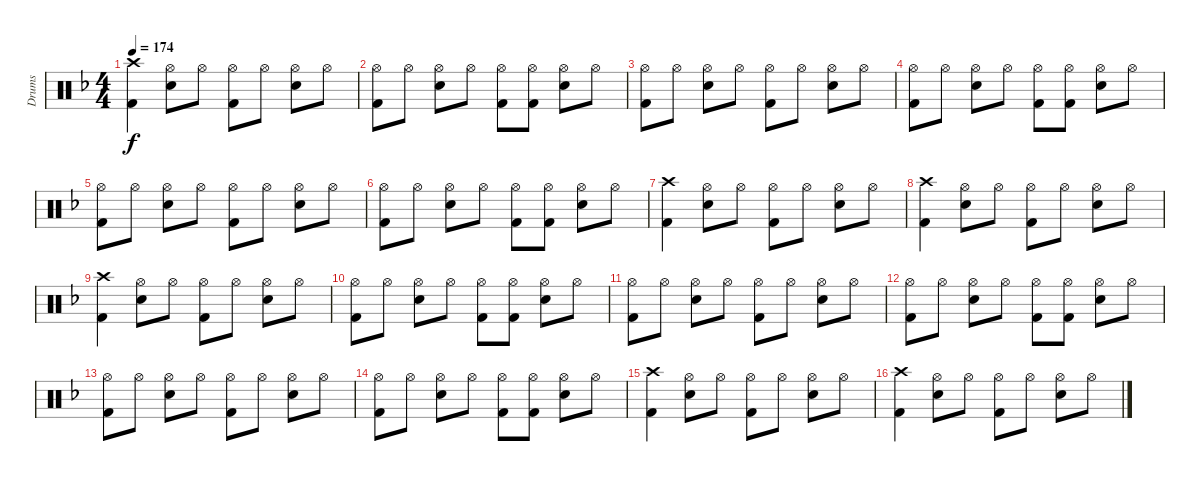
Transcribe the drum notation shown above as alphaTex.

\track ("Drums" "Drums") {instrument percussion}
\staff {score}
\articulation defaults
\ts (4 4)
\tempo 174
\clef neutral
\ks dminor
("Kick (hit) 2" "Crash high (hit)").4{dy f} ("Snare (hit) 2" "Hi-Hat (open)").8 "Hi-Hat (open)".8 ("Kick (hit) 2" "Hi-Hat (open)").8 "Hi-Hat (open)".8 ("Snare (hit) 2" "Hi-Hat (open)").8 "Hi-Hat (open)".8 |
("Kick (hit) 2" "Hi-Hat (open)").8 "Hi-Hat (open)".8 ("Snare (hit) 2" "Hi-Hat (open)").8 "Hi-Hat (open)".8 ("Kick (hit) 2" "Hi-Hat (open)").8 ("Kick (hit) 2" "Hi-Hat (open)").8 ("Snare (hit) 2" "Hi-Hat (open)").8 "Hi-Hat (open)".8 |
("Kick (hit) 2" "Hi-Hat (open)").8 "Hi-Hat (open)".8 ("Snare (hit) 2" "Hi-Hat (open)").8 "Hi-Hat (open)".8 ("Kick (hit) 2" "Hi-Hat (open)").8 "Hi-Hat (open)".8 ("Snare (hit) 2" "Hi-Hat (open)").8 "Hi-Hat (open)".8 |
("Kick (hit) 2" "Hi-Hat (open)").8 "Hi-Hat (open)".8 ("Snare (hit) 2" "Hi-Hat (open)").8 "Hi-Hat (open)".8 ("Kick (hit) 2" "Hi-Hat (open)").8 ("Kick (hit) 2" "Hi-Hat (open)").8 ("Snare (hit) 2" "Hi-Hat (open)").8 "Hi-Hat (open)".8 |
("Kick (hit) 2" "Hi-Hat (open)").8 "Hi-Hat (open)".8 ("Snare (hit) 2" "Hi-Hat (open)").8 "Hi-Hat (open)".8 ("Kick (hit) 2" "Hi-Hat (open)").8 "Hi-Hat (open)".8 ("Snare (hit) 2" "Hi-Hat (open)").8 "Hi-Hat (open)".8 |
("Kick (hit) 2" "Hi-Hat (open)").8 "Hi-Hat (open)".8 ("Snare (hit) 2" "Hi-Hat (open)").8 "Hi-Hat (open)".8 ("Kick (hit) 2" "Hi-Hat (open)").8 ("Kick (hit) 2" "Hi-Hat (open)").8 ("Snare (hit) 2" "Hi-Hat (open)").8 "Hi-Hat (open)".8 |
("Kick (hit) 2" "Crash high (hit)").4 ("Snare (hit) 2" "Hi-Hat (open)").8 "Hi-Hat (open)".8 ("Kick (hit) 2" "Hi-Hat (open)").8 "Hi-Hat (open)".8 ("Snare (hit) 2" "Hi-Hat (open)").8 "Hi-Hat (open)".8 |
("Kick (hit) 2" "Crash high (hit)").4 ("Snare (hit) 2" "Hi-Hat (open)").8 "Hi-Hat (open)".8 ("Kick (hit) 2" "Hi-Hat (open)").8 "Hi-Hat (open)".8 ("Snare (hit) 2" "Hi-Hat (open)").8 "Hi-Hat (open)".8 |
("Kick (hit) 2" "Crash high (hit)").4 ("Snare (hit) 2" "Hi-Hat (open)").8 "Hi-Hat (open)".8 ("Kick (hit) 2" "Hi-Hat (open)").8 "Hi-Hat (open)".8 ("Snare (hit) 2" "Hi-Hat (open)").8 "Hi-Hat (open)".8 |
("Kick (hit) 2" "Hi-Hat (open)").8 "Hi-Hat (open)".8 ("Snare (hit) 2" "Hi-Hat (open)").8 "Hi-Hat (open)".8 ("Kick (hit) 2" "Hi-Hat (open)").8 ("Kick (hit) 2" "Hi-Hat (open)").8 ("Snare (hit) 2" "Hi-Hat (open)").8 "Hi-Hat (open)".8 |
("Kick (hit) 2" "Hi-Hat (open)").8 "Hi-Hat (open)".8 ("Snare (hit) 2" "Hi-Hat (open)").8 "Hi-Hat (open)".8 ("Kick (hit) 2" "Hi-Hat (open)").8 "Hi-Hat (open)".8 ("Snare (hit) 2" "Hi-Hat (open)").8 "Hi-Hat (open)".8 |
("Kick (hit) 2" "Hi-Hat (open)").8 "Hi-Hat (open)".8 ("Snare (hit) 2" "Hi-Hat (open)").8 "Hi-Hat (open)".8 ("Kick (hit) 2" "Hi-Hat (open)").8 ("Kick (hit) 2" "Hi-Hat (open)").8 ("Snare (hit) 2" "Hi-Hat (open)").8 "Hi-Hat (open)".8 |
("Kick (hit) 2" "Hi-Hat (open)").8 "Hi-Hat (open)".8 ("Snare (hit) 2" "Hi-Hat (open)").8 "Hi-Hat (open)".8 ("Kick (hit) 2" "Hi-Hat (open)").8 "Hi-Hat (open)".8 ("Snare (hit) 2" "Hi-Hat (open)").8 "Hi-Hat (open)".8 |
("Kick (hit) 2" "Hi-Hat (open)").8 "Hi-Hat (open)".8 ("Snare (hit) 2" "Hi-Hat (open)").8 "Hi-Hat (open)".8 ("Kick (hit) 2" "Hi-Hat (open)").8 ("Kick (hit) 2" "Hi-Hat (open)").8 ("Snare (hit) 2" "Hi-Hat (open)").8 "Hi-Hat (open)".8 |
("Kick (hit) 2" "Crash high (hit)").4 ("Snare (hit) 2" "Hi-Hat (open)").8 "Hi-Hat (open)".8 ("Kick (hit) 2" "Hi-Hat (open)").8 "Hi-Hat (open)".8 ("Snare (hit) 2" "Hi-Hat (open)").8 "Hi-Hat (open)".8 |
("Kick (hit) 2" "Crash high (hit)").4 ("Snare (hit) 2" "Hi-Hat (open)").8 "Hi-Hat (open)".8 ("Kick (hit) 2" "Hi-Hat (open)").8 "Hi-Hat (open)".8 ("Snare (hit) 2" "Hi-Hat (open)").8 "Hi-Hat (open)".8
